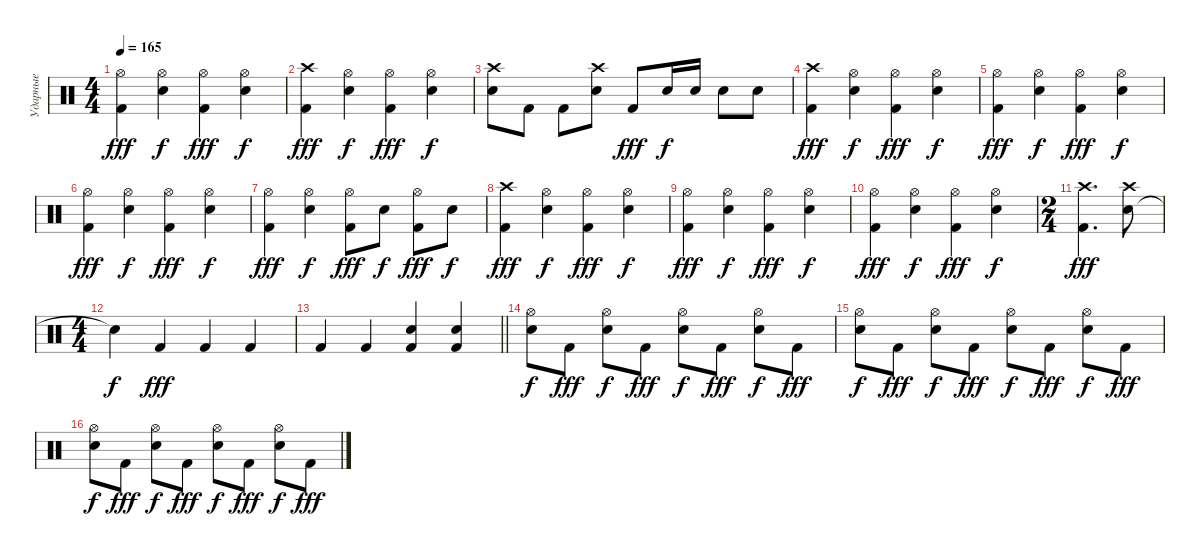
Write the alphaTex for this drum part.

\track ("Ударные" "Ударные") {instrument percussion}
\staff {score}
\articulation defaults
\ts (4 4)
\tempo 165
\clef neutral
\ks c
("Kick (hit) 2" "Hi-Hat (open)").4{dy fff} ("Snare (hit) 2" "Hi-Hat (open)").4{dy f} ("Kick (hit) 2" "Hi-Hat (open)").4{dy fff} ("Snare (hit) 2" "Hi-Hat (open)").4{dy f} |
("Kick (hit) 2" "Crash high (hit)").4{dy fff} ("Snare (hit) 2" "Hi-Hat (open)").4{dy f} ("Kick (hit) 2" "Hi-Hat (open)").4{dy fff} ("Snare (hit) 2" "Hi-Hat (open)").4{dy f} |
("Snare (hit) 2" "Crash high (hit)").8 "Kick (hit) 2".8 "Kick (hit) 2".8 ("Snare (hit) 2" "Crash high (hit)").8 "Kick (hit) 2".8{dy fff} "Snare (hit) 2".16{dy f} "Snare (hit) 2".16 "Snare (hit) 2".8 "Snare (hit) 2".8 |
("Kick (hit) 2" "Crash high (hit)").4{dy fff} ("Snare (hit) 2" "Hi-Hat (open)").4{dy f} ("Kick (hit) 2" "Hi-Hat (open)").4{dy fff} ("Snare (hit) 2" "Hi-Hat (open)").4{dy f} |
("Kick (hit) 2" "Hi-Hat (open)").4{dy fff} ("Snare (hit) 2" "Hi-Hat (open)").4{dy f} ("Kick (hit) 2" "Hi-Hat (open)").4{dy fff} ("Snare (hit) 2" "Hi-Hat (open)").4{dy f} |
("Kick (hit) 2" "Hi-Hat (open)").4{dy fff} ("Snare (hit) 2" "Hi-Hat (open)").4{dy f} ("Kick (hit) 2" "Hi-Hat (open)").4{dy fff} ("Snare (hit) 2" "Hi-Hat (open)").4{dy f} |
("Kick (hit) 2" "Hi-Hat (open)").4{dy fff} ("Snare (hit) 2" "Hi-Hat (open)").4{dy f} ("Kick (hit) 2" "Hi-Hat (open)").8{dy fff} "Snare (hit) 2".8{dy f} ("Kick (hit) 2" "Hi-Hat (open)").8{dy fff} "Snare (hit) 2".8{dy f} |
("Kick (hit) 2" "Crash high (hit)").4{dy fff} ("Snare (hit) 2" "Hi-Hat (open)").4{dy f} ("Kick (hit) 2" "Hi-Hat (open)").4{dy fff} ("Snare (hit) 2" "Hi-Hat (open)").4{dy f} |
("Kick (hit) 2" "Hi-Hat (open)").4{dy fff} ("Snare (hit) 2" "Hi-Hat (open)").4{dy f} ("Kick (hit) 2" "Hi-Hat (open)").4{dy fff} ("Snare (hit) 2" "Hi-Hat (open)").4{dy f} |
("Kick (hit) 2" "Hi-Hat (open)").4{dy fff} ("Snare (hit) 2" "Hi-Hat (open)").4{dy f} ("Kick (hit) 2" "Hi-Hat (open)").4{dy fff} ("Snare (hit) 2" "Hi-Hat (open)").4{dy f} |
\ts (2 4)
("Kick (hit) 2" "Crash high (hit)").4{d dy fff} ("Snare (hit) 2" "Crash high (hit)").8 |
\ts (4 4)
"Snare (hit)"{t}.4{dy f} "Kick (hit) 2".4{dy fff} "Kick (hit) 2".4 "Kick (hit) 2".4 |
\barLineRight lightlight "Kick (hit) 2".4 "Kick (hit) 2".4
("Kick (hit) 2" "Snare (hit) 2").4 ("Kick (hit) 2" "Snare (hit) 2").4 |
("Snare (hit) 2" "Hi-Hat (open)").8{dy f} "Kick (hit) 2".8{dy fff} ("Snare (hit) 2" "Hi-Hat (open)").8{dy f} "Kick (hit) 2".8{dy fff} ("Snare (hit) 2" "Hi-Hat (open)").8{dy f} "Kick (hit) 2".8{dy fff} ("Snare (hit) 2" "Hi-Hat (open)").8{dy f} "Kick (hit) 2".8{dy fff} |
("Snare (hit) 2" "Hi-Hat (open)").8{dy f} "Kick (hit) 2".8{dy fff} ("Snare (hit) 2" "Hi-Hat (open)").8{dy f} "Kick (hit) 2".8{dy fff} ("Snare (hit) 2" "Hi-Hat (open)").8{dy f} "Kick (hit) 2".8{dy fff} ("Snare (hit) 2" "Hi-Hat (open)").8{dy f} "Kick (hit) 2".8{dy fff} |
("Snare (hit) 2" "Hi-Hat (open)").8{dy f} "Kick (hit) 2".8{dy fff} ("Snare (hit) 2" "Hi-Hat (open)").8{dy f} "Kick (hit) 2".8{dy fff} ("Snare (hit) 2" "Hi-Hat (open)").8{dy f} "Kick (hit) 2".8{dy fff} ("Snare (hit) 2" "Hi-Hat (open)").8{dy f} "Kick (hit) 2".8{dy fff}
